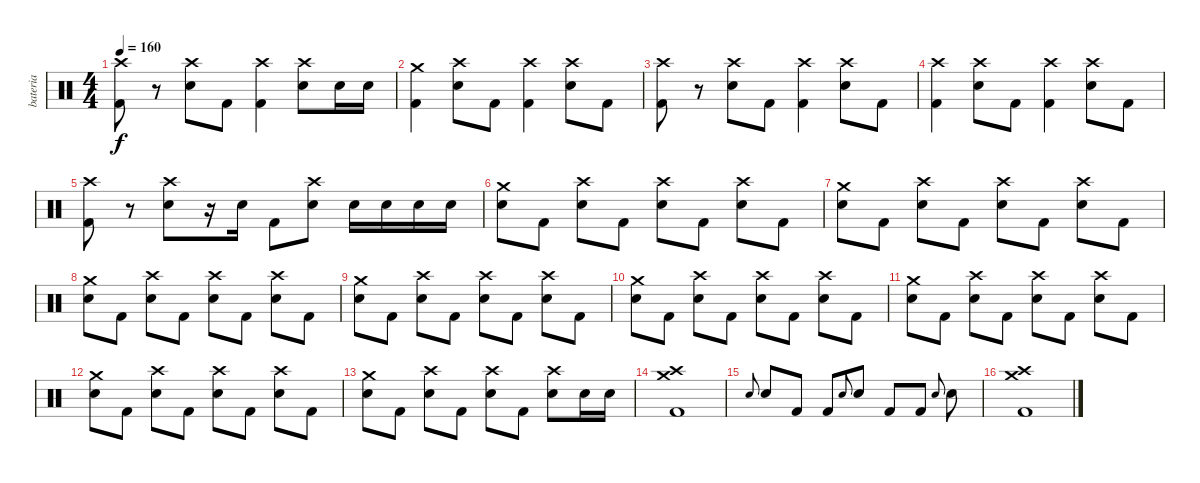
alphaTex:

\track ("bateria" "bateria") {instrument percussion}
\staff {score}
\articulation defaults
\ts (4 4)
\tempo 160
\clef neutral
\ks c
("Crash high (hit)" "Kick (hit) 2").8{dy f} r.8 ("Crash high (hit)" "Snare (hit) 2").8 "Kick (hit) 2".8 ("Crash high (hit)" "Kick (hit) 2").4 ("Crash high (hit)" "Snare (hit) 2").8 "Snare (hit) 2".16 "Snare (hit) 2".16 |
("Crash medium (hit)" "Kick (hit) 2").4 ("Crash high (hit)" "Snare (hit) 2").8 "Kick (hit) 2".8 ("Crash high (hit)" "Kick (hit) 2").4 ("Crash high (hit)" "Snare (hit) 2").8 "Kick (hit) 2".8 |
("Crash high (hit)" "Kick (hit) 2").8 r.8 ("Crash high (hit)" "Snare (hit) 2").8 "Kick (hit) 2".8 ("Crash high (hit)" "Kick (hit) 2").4 ("Crash high (hit)" "Snare (hit) 2").8 "Kick (hit) 2".8 |
("Crash high (hit)" "Kick (hit) 2").4 ("Crash high (hit)" "Snare (hit) 2").8 "Kick (hit) 2".8 ("Crash high (hit)" "Kick (hit) 2").4 ("Crash high (hit)" "Snare (hit) 2").8 "Kick (hit) 2".8 |
("Crash high (hit)" "Kick (hit) 2").8 r.8 ("Crash high (hit)" "Snare (hit) 2").8 r.16 "Snare (hit) 2".16 "Kick (hit) 2".8 ("Crash high (hit)" "Snare (hit) 2").8 "Snare (hit) 2".16 "Snare (hit) 2".16 "Snare (hit) 2".16 "Snare (hit) 2".16 |
("Crash medium (hit)" "Snare (hit) 2").8 "Kick (hit) 2".8 ("Crash high (hit)" "Snare (hit) 2").8 "Kick (hit) 2".8 ("Crash high (hit)" "Snare (hit) 2").8 "Kick (hit) 2".8 ("Crash high (hit)" "Snare (hit) 2").8 "Kick (hit) 2".8 |
("Crash medium (hit)" "Snare (hit) 2").8 "Kick (hit) 2".8 ("Crash high (hit)" "Snare (hit) 2").8 "Kick (hit) 2".8 ("Crash high (hit)" "Snare (hit) 2").8 "Kick (hit) 2".8 ("Crash high (hit)" "Snare (hit) 2").8 "Kick (hit) 2".8 |
("Crash medium (hit)" "Snare (hit) 2").8 "Kick (hit) 2".8 ("Crash high (hit)" "Snare (hit) 2").8 "Kick (hit) 2".8 ("Crash high (hit)" "Snare (hit) 2").8 "Kick (hit) 2".8 ("Crash high (hit)" "Snare (hit) 2").8 "Kick (hit) 2".8 |
("Crash medium (hit)" "Snare (hit) 2").8 "Kick (hit) 2".8 ("Crash high (hit)" "Snare (hit) 2").8 "Kick (hit) 2".8 ("Crash high (hit)" "Snare (hit) 2").8 "Kick (hit) 2".8 ("Crash high (hit)" "Snare (hit) 2").8 "Kick (hit) 2".8 |
("Crash medium (hit)" "Snare (hit) 2").8 "Kick (hit) 2".8 ("Crash high (hit)" "Snare (hit) 2").8 "Kick (hit) 2".8 ("Crash high (hit)" "Snare (hit) 2").8 "Kick (hit) 2".8 ("Crash high (hit)" "Snare (hit) 2").8 "Kick (hit) 2".8 |
("Crash medium (hit)" "Snare (hit) 2").8 "Kick (hit) 2".8 ("Crash high (hit)" "Snare (hit) 2").8 "Kick (hit) 2".8 ("Crash high (hit)" "Snare (hit) 2").8 "Kick (hit) 2".8 ("Crash high (hit)" "Snare (hit) 2").8 "Kick (hit) 2".8 |
("Crash medium (hit)" "Snare (hit) 2").8 "Kick (hit) 2".8 ("Crash high (hit)" "Snare (hit) 2").8 "Kick (hit) 2".8 ("Crash high (hit)" "Snare (hit) 2").8 "Kick (hit) 2".8 ("Crash high (hit)" "Snare (hit) 2").8 "Kick (hit) 2".8 |
("Crash medium (hit)" "Snare (hit) 2").8 "Kick (hit) 2".8 ("Crash high (hit)" "Snare (hit) 2").8 "Kick (hit) 2".8 ("Crash high (hit)" "Snare (hit) 2").8 "Kick (hit) 2".8 ("Crash high (hit)" "Snare (hit) 2").8 "Snare (hit) 2".16 "Snare (hit) 2".16 |
("Crash medium (hit)" "Crash high (hit)" "Kick (hit) 2").1 |
"Snare (hit) 2".8{gr onbeat} "Snare (hit) 2".8 "Kick (hit) 2".8 "Kick (hit) 2".8 "Snare (hit) 2".8{gr onbeat} "Snare (hit) 2".8 "Kick (hit) 2".8 "Kick (hit) 2".8 "Snare (hit) 2".8{gr onbeat} "Snare (hit) 2".8 |
("Crash medium (hit)" "Crash high (hit)" "Kick (hit) 2").1
